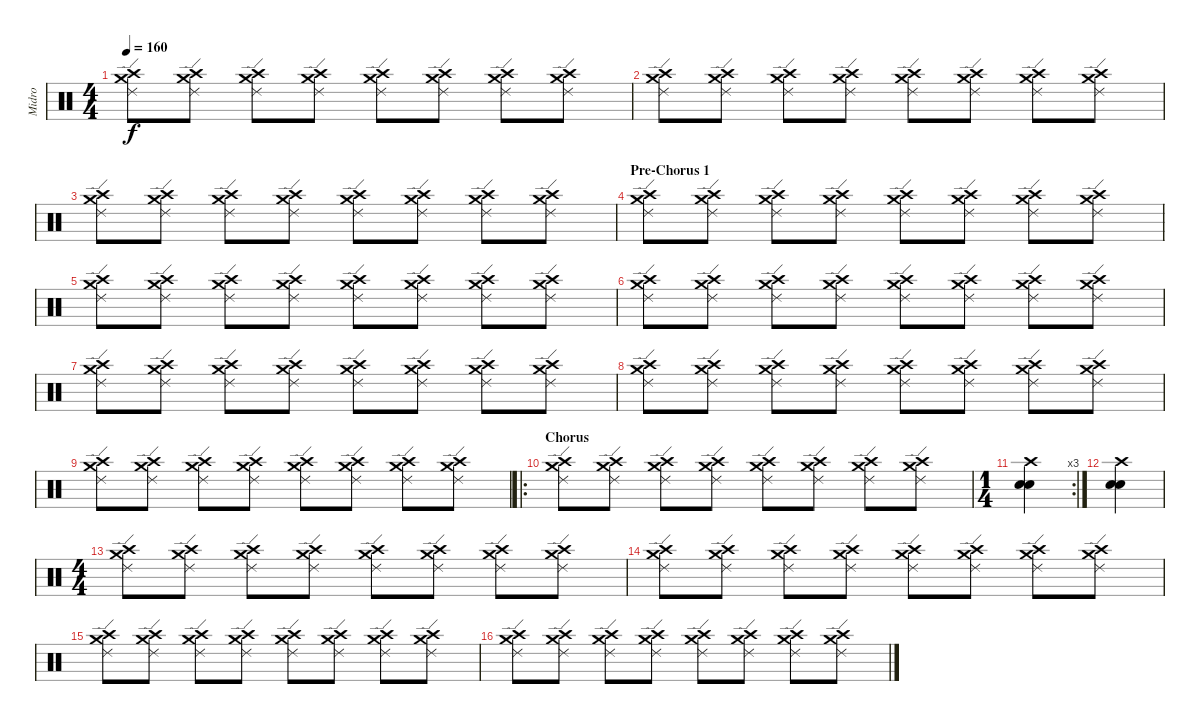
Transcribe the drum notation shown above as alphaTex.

\track ("Midro" "Midro") {instrument percussion}
\staff {score}
\articulation defaults
\ts (4 4)
\tempo 160
\clef neutral
\ks c
("Ride (edge) 2" "Crash medium (hit)" "Crash high (hit)").8{dy f} ("Ride (edge) 2" "Crash medium (hit)" "Crash high (hit)").8 ("Ride (edge) 2" "Crash medium (hit)" "Crash high (hit)").8 ("Ride (edge) 2" "Crash medium (hit)" "Crash high (hit)").8 ("Ride (edge) 2" "Crash medium (hit)" "Crash high (hit)").8 ("Ride (edge) 2" "Crash medium (hit)" "Crash high (hit)").8 ("Ride (edge) 2" "Crash medium (hit)" "Crash high (hit)").8 ("Ride (edge) 2" "Crash medium (hit)" "Crash high (hit)").8 |
("Ride (edge) 2" "Crash medium (hit)" "Crash high (hit)").8 ("Ride (edge) 2" "Crash medium (hit)" "Crash high (hit)").8 ("Ride (edge) 2" "Crash medium (hit)" "Crash high (hit)").8 ("Ride (edge) 2" "Crash medium (hit)" "Crash high (hit)").8 ("Ride (edge) 2" "Crash medium (hit)" "Crash high (hit)").8 ("Ride (edge) 2" "Crash medium (hit)" "Crash high (hit)").8 ("Ride (edge) 2" "Crash medium (hit)" "Crash high (hit)").8 ("Ride (edge) 2" "Crash medium (hit)" "Crash high (hit)").8 |
("Ride (edge) 2" "Crash medium (hit)" "Crash high (hit)").8 ("Ride (edge) 2" "Crash medium (hit)" "Crash high (hit)").8 ("Ride (edge) 2" "Crash medium (hit)" "Crash high (hit)").8 ("Ride (edge) 2" "Crash medium (hit)" "Crash high (hit)").8 ("Ride (edge) 2" "Crash medium (hit)" "Crash high (hit)").8 ("Ride (edge) 2" "Crash medium (hit)" "Crash high (hit)").8 ("Ride (edge) 2" "Crash medium (hit)" "Crash high (hit)").8 ("Ride (edge) 2" "Crash medium (hit)" "Crash high (hit)").8 |
\section ("" "Pre-Chorus 1")
("Ride (edge) 2" "Crash medium (hit)" "Crash high (hit)").8 ("Ride (edge) 2" "Crash medium (hit)" "Crash high (hit)").8 ("Ride (edge) 2" "Crash medium (hit)" "Crash high (hit)").8 ("Ride (edge) 2" "Crash medium (hit)" "Crash high (hit)").8 ("Ride (edge) 2" "Crash medium (hit)" "Crash high (hit)").8 ("Ride (edge) 2" "Crash medium (hit)" "Crash high (hit)").8 ("Ride (edge) 2" "Crash medium (hit)" "Crash high (hit)").8 ("Ride (edge) 2" "Crash medium (hit)" "Crash high (hit)").8 |
("Ride (edge) 2" "Crash medium (hit)" "Crash high (hit)").8 ("Ride (edge) 2" "Crash medium (hit)" "Crash high (hit)").8 ("Ride (edge) 2" "Crash medium (hit)" "Crash high (hit)").8 ("Ride (edge) 2" "Crash medium (hit)" "Crash high (hit)").8 ("Ride (edge) 2" "Crash medium (hit)" "Crash high (hit)").8 ("Ride (edge) 2" "Crash medium (hit)" "Crash high (hit)").8 ("Ride (edge) 2" "Crash medium (hit)" "Crash high (hit)").8 ("Ride (edge) 2" "Crash medium (hit)" "Crash high (hit)").8 |
("Ride (edge) 2" "Crash medium (hit)" "Crash high (hit)").8 ("Ride (edge) 2" "Crash medium (hit)" "Crash high (hit)").8 ("Ride (edge) 2" "Crash medium (hit)" "Crash high (hit)").8 ("Ride (edge) 2" "Crash medium (hit)" "Crash high (hit)").8 ("Ride (edge) 2" "Crash medium (hit)" "Crash high (hit)").8 ("Ride (edge) 2" "Crash medium (hit)" "Crash high (hit)").8 ("Ride (edge) 2" "Crash medium (hit)" "Crash high (hit)").8 ("Ride (edge) 2" "Crash medium (hit)" "Crash high (hit)").8 |
("Ride (edge) 2" "Crash medium (hit)" "Crash high (hit)").8 ("Ride (edge) 2" "Crash medium (hit)" "Crash high (hit)").8 ("Ride (edge) 2" "Crash medium (hit)" "Crash high (hit)").8 ("Ride (edge) 2" "Crash medium (hit)" "Crash high (hit)").8 ("Ride (edge) 2" "Crash medium (hit)" "Crash high (hit)").8 ("Ride (edge) 2" "Crash medium (hit)" "Crash high (hit)").8 ("Ride (edge) 2" "Crash medium (hit)" "Crash high (hit)").8 ("Ride (edge) 2" "Crash medium (hit)" "Crash high (hit)").8 |
("Ride (edge) 2" "Crash medium (hit)" "Crash high (hit)").8 ("Ride (edge) 2" "Crash medium (hit)" "Crash high (hit)").8 ("Ride (edge) 2" "Crash medium (hit)" "Crash high (hit)").8 ("Ride (edge) 2" "Crash medium (hit)" "Crash high (hit)").8 ("Ride (edge) 2" "Crash medium (hit)" "Crash high (hit)").8 ("Ride (edge) 2" "Crash medium (hit)" "Crash high (hit)").8 ("Ride (edge) 2" "Crash medium (hit)" "Crash high (hit)").8 ("Ride (edge) 2" "Crash medium (hit)" "Crash high (hit)").8 |
("Ride (edge) 2" "Crash medium (hit)" "Crash high (hit)").8 ("Ride (edge) 2" "Crash medium (hit)" "Crash high (hit)").8 ("Ride (edge) 2" "Crash medium (hit)" "Crash high (hit)").8 ("Ride (edge) 2" "Crash medium (hit)" "Crash high (hit)").8 ("Ride (edge) 2" "Crash medium (hit)" "Crash high (hit)").8 ("Ride (edge) 2" "Crash medium (hit)" "Crash high (hit)").8 ("Ride (edge) 2" "Crash medium (hit)" "Crash high (hit)").8 ("Ride (edge) 2" "Crash medium (hit)" "Crash high (hit)").8 |
\ro
\section ("" "Chorus")
("Ride (edge) 2" "Crash medium (hit)" "Crash high (hit)").8 ("Ride (edge) 2" "Crash medium (hit)" "Crash high (hit)").8 ("Ride (edge) 2" "Crash medium (hit)" "Crash high (hit)").8 ("Ride (edge) 2" "Crash medium (hit)" "Crash high (hit)").8 ("Ride (edge) 2" "Crash medium (hit)" "Crash high (hit)").8 ("Ride (edge) 2" "Crash medium (hit)" "Crash high (hit)").8 ("Ride (edge) 2" "Crash medium (hit)" "Crash high (hit)").8 ("Ride (edge) 2" "Crash medium (hit)" "Crash high (hit)").8 |
\rc 3
\ts (1 4)
("Crash high (hit)" "Snare (hit) 2" "Electric Snare (hit)").4 |
("Crash high (hit)" "Snare (hit) 2" "Electric Snare (hit)").4 |
\ts (4 4)
("Ride (edge) 2" "Crash medium (hit)" "Crash high (hit)").8 ("Ride (edge) 2" "Crash medium (hit)" "Crash high (hit)").8 ("Ride (edge) 2" "Crash medium (hit)" "Crash high (hit)").8 ("Ride (edge) 2" "Crash medium (hit)" "Crash high (hit)").8 ("Ride (edge) 2" "Crash medium (hit)" "Crash high (hit)").8 ("Ride (edge) 2" "Crash medium (hit)" "Crash high (hit)").8 ("Ride (edge) 2" "Crash medium (hit)" "Crash high (hit)").8 ("Ride (edge) 2" "Crash medium (hit)" "Crash high (hit)").8 |
("Ride (edge) 2" "Crash medium (hit)" "Crash high (hit)").8 ("Ride (edge) 2" "Crash medium (hit)" "Crash high (hit)").8 ("Ride (edge) 2" "Crash medium (hit)" "Crash high (hit)").8 ("Ride (edge) 2" "Crash medium (hit)" "Crash high (hit)").8 ("Ride (edge) 2" "Crash medium (hit)" "Crash high (hit)").8 ("Ride (edge) 2" "Crash medium (hit)" "Crash high (hit)").8 ("Ride (edge) 2" "Crash medium (hit)" "Crash high (hit)").8 ("Ride (edge) 2" "Crash medium (hit)" "Crash high (hit)").8 |
("Ride (edge) 2" "Crash medium (hit)" "Crash high (hit)").8 ("Ride (edge) 2" "Crash medium (hit)" "Crash high (hit)").8 ("Ride (edge) 2" "Crash medium (hit)" "Crash high (hit)").8 ("Ride (edge) 2" "Crash medium (hit)" "Crash high (hit)").8 ("Ride (edge) 2" "Crash medium (hit)" "Crash high (hit)").8 ("Ride (edge) 2" "Crash medium (hit)" "Crash high (hit)").8 ("Ride (edge) 2" "Crash medium (hit)" "Crash high (hit)").8 ("Ride (edge) 2" "Crash medium (hit)" "Crash high (hit)").8 |
("Ride (edge) 2" "Crash medium (hit)" "Crash high (hit)").8 ("Ride (edge) 2" "Crash medium (hit)" "Crash high (hit)").8 ("Ride (edge) 2" "Crash medium (hit)" "Crash high (hit)").8 ("Ride (edge) 2" "Crash medium (hit)" "Crash high (hit)").8 ("Ride (edge) 2" "Crash medium (hit)" "Crash high (hit)").8 ("Ride (edge) 2" "Crash medium (hit)" "Crash high (hit)").8 ("Ride (edge) 2" "Crash medium (hit)" "Crash high (hit)").8 ("Ride (edge) 2" "Crash medium (hit)" "Crash high (hit)").8
